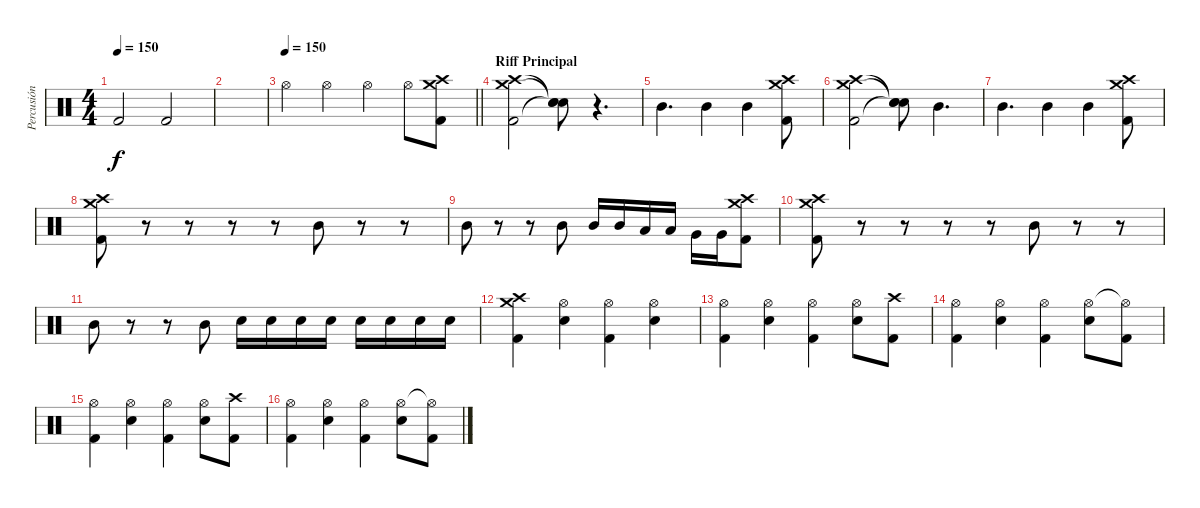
\track ("Percusión" "Percusión") {instrument percussion}
\staff {score}
\articulation defaults
\ts (4 4)
\tempo 150
\clef neutral
\ks c "Kick (hit) 2".2{dy f} "Kick (hit) 2".2
|
|
\tempo 150
\barLineRight lightlight "Hi-Hat (open)".4 "Hi-Hat (open)".4 "Hi-Hat (open)".4 "Hi-Hat (open)".8
("Crash medium (hit)" "Kick (hit) 2" "Crash high (hit)").8 |
\section ("" "Riff Principal")
("Crash medium (hit)" "Kick (hit) 2" "Crash high (hit)").2 ("Snare (hit)"{t} "Snare (hit)"{t} "Snare (hit)"{t}).8 r.4{d} |
"Mid Tom (hit)".4{d} "Mid Tom (hit)".4 "Mid Tom (hit)".4 ("Crash medium (hit)" "Kick (hit) 2" "Crash high (hit)").8 |
("Crash medium (hit)" "Kick (hit) 2" "Crash high (hit)").2 ("Snare (hit)"{t} "Snare (hit)"{t} "Snare (hit)"{t}).8 "Mid Tom (hit)".4{d} |
"Mid Tom (hit)".4{d} "Mid Tom (hit)".4 "Mid Tom (hit)".4 ("Crash medium (hit)" "Kick (hit) 2" "Crash high (hit)").8 |
("Crash medium (hit)" "Kick (hit) 2" "Crash high (hit)").8 r.8 r.8 r.8 r.8 "Mid Tom (hit)".8 r.8 r.8 |
"Mid Tom (hit)".8 r.8 r.8 "Mid Tom (hit)".8 "Mid Tom (hit)".16 "Mid Tom (hit)".16 "Low Tom (hit)".16 "Low Tom (hit)".16 "Very Low Tom (hit)".16 "Very Low Tom (hit)".16 ("Crash medium (hit)" "Kick (hit) 2" "Crash high (hit)").8 |
("Crash medium (hit)" "Kick (hit) 2" "Crash high (hit)").8 r.8 r.8 r.8 r.8 "Mid Tom (hit)".8 r.8 r.8 |
"Mid Tom (hit)".8 r.8 r.8 "Mid Tom (hit)".8 "Electric Snare (hit)".16 "Electric Snare (hit)".16 "Electric Snare (hit)".16 "Electric Snare (hit)".16 "Electric Snare (hit)".16 "Electric Snare (hit)".16 "Electric Snare (hit)".16 "Electric Snare (hit)".16 |
("Kick (hit) 2" "Crash high (hit)" "Crash medium (hit)").4 ("Electric Snare (hit)" "Hi-Hat (open)").4 ("Kick (hit) 2" "Hi-Hat (open)").4 ("Electric Snare (hit)" "Hi-Hat (open)").4 |
("Kick (hit) 2" "Hi-Hat (open)").4 ("Electric Snare (hit)" "Hi-Hat (open)").4 ("Kick (hit) 2" "Hi-Hat (open)").4 ("Electric Snare (hit)" "Hi-Hat (open)").8 ("Kick (hit) 2" "Crash high (hit)").8 |
("Kick (hit) 2" "Hi-Hat (open)").4 ("Electric Snare (hit)" "Hi-Hat (open)").4 ("Kick (hit) 2" "Hi-Hat (open)").4 ("Electric Snare (hit)" "Hi-Hat (open)").8 ("Kick (hit) 2" "Hi-Hat (open)"{t}).8 |
("Kick (hit) 2" "Hi-Hat (open)").4 ("Electric Snare (hit)" "Hi-Hat (open)").4 ("Kick (hit) 2" "Hi-Hat (open)").4 ("Electric Snare (hit)" "Hi-Hat (open)").8 ("Kick (hit) 2" "Crash high (hit)").8 |
("Kick (hit) 2" "Hi-Hat (open)").4 ("Electric Snare (hit)" "Hi-Hat (open)").4 ("Kick (hit) 2" "Hi-Hat (open)").4 ("Electric Snare (hit)" "Hi-Hat (open)").8 ("Kick (hit) 2" "Hi-Hat (open)"{t}).8
